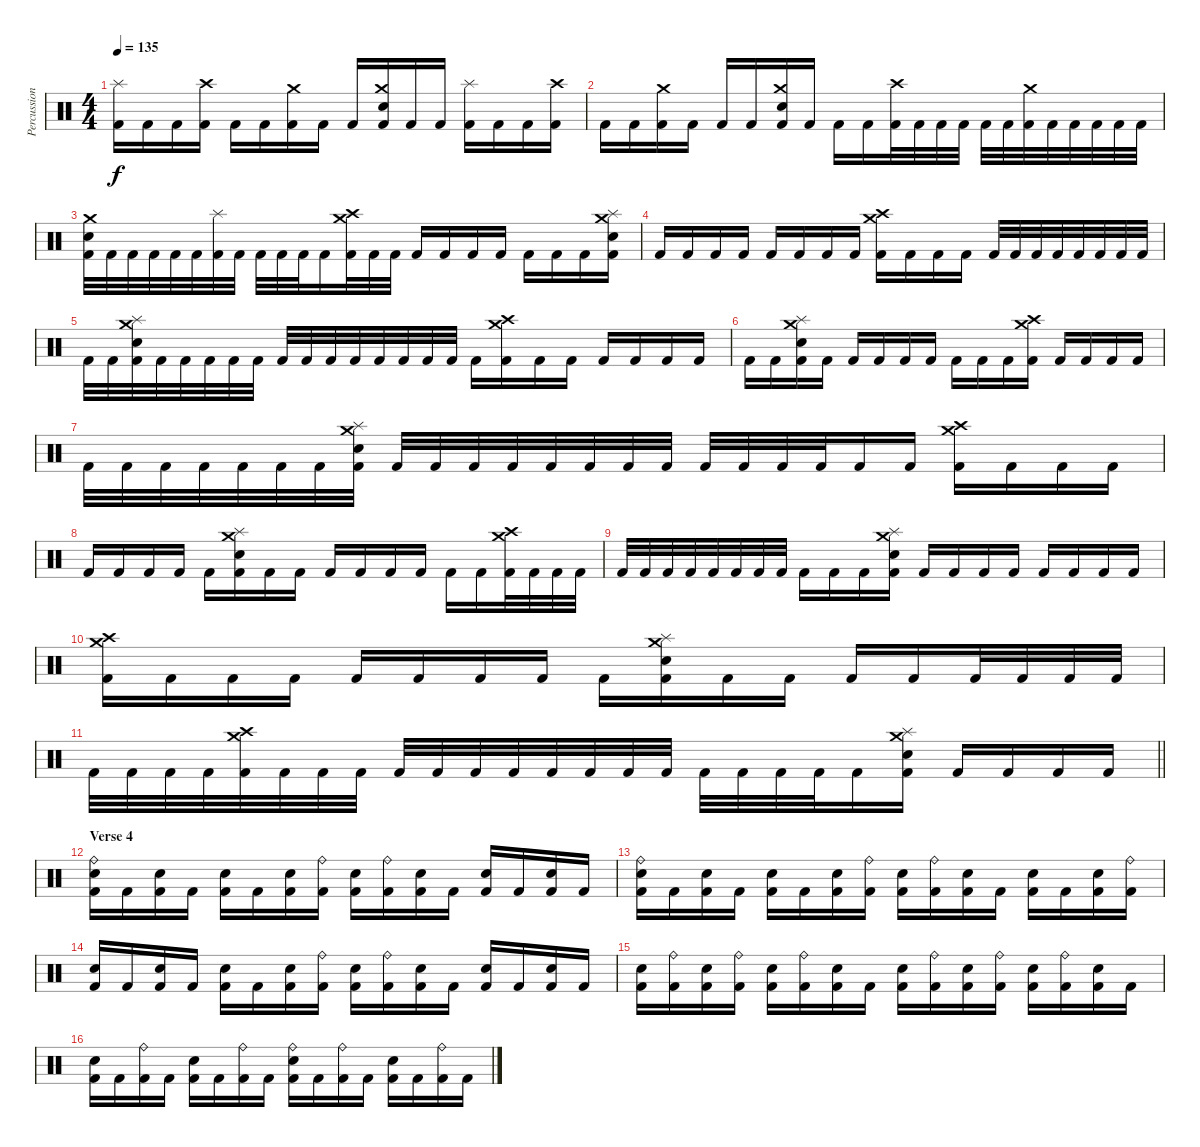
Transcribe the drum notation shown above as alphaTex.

\track ("Percussion" "Percussion") {instrument percussion}
\staff {score}
\articulation defaults
\ts (4 4)
\tempo 135
\clef neutral
\ks c
("Splash (hit)" "Kick (hit) 2").16{dy f} "Kick (hit) 2".16 "Kick (hit) 2".16 ("Crash high (hit)" "Kick (hit) 2").16 "Kick (hit) 2".16 "Kick (hit) 2".16 ("Crash medium (hit)" "Kick (hit) 2").16 "Kick (hit) 2".16 "Kick (hit) 2".16 ("Crash medium (hit)" "Electric Snare (hit)" "Kick (hit) 2").16 "Kick (hit) 2".16 "Kick (hit) 2".16 ("Splash (hit)" "Kick (hit) 2").16 "Kick (hit) 2".16 "Kick (hit) 2".16 ("Crash high (hit)" "Kick (hit) 2").16 |
"Kick (hit) 2".16 "Kick (hit) 2".16 ("Crash medium (hit)" "Kick (hit) 2").16 "Kick (hit) 2".16 "Kick (hit) 2".16 "Kick (hit) 2".16 ("Crash medium (hit)" "Electric Snare (hit)" "Kick (hit) 2").16 "Kick (hit) 2".16 "Kick (hit) 2".16 "Kick (hit) 2".16 ("Crash high (hit)" "Kick (hit) 2").32 "Kick (hit) 2".32 "Kick (hit) 2".32 "Kick (hit) 2".32 "Kick (hit) 2".32 "Kick (hit) 2".32 ("Crash medium (hit)" "Kick (hit) 2").32 "Kick (hit) 2".32 "Kick (hit) 2".32 "Kick (hit) 2".32 "Kick (hit) 2".32 "Kick (hit) 2".32 |
("Crash medium (hit)" "Electric Snare (hit)" "Kick (hit) 2").32 "Kick (hit) 2".32 "Kick (hit) 2".32 "Kick (hit) 2".32 "Kick (hit) 2".32 "Kick (hit) 2".32 ("Splash (hit)" "Kick (hit) 2").32 "Kick (hit) 2".32 "Kick (hit) 2".32 "Kick (hit) 2".32 "Kick (hit) 2".32 "Kick (hit) 2".16 ("Crash high (hit)" "Crash medium (hit)" "Kick (hit) 2").32 "Kick (hit) 2".32 "Kick (hit) 2".32 "Kick (hit) 2".16 "Kick (hit) 2".16 "Kick (hit) 2".16 "Kick (hit) 2".16 "Kick (hit) 2".16 "Kick (hit) 2".16 "Kick (hit) 2".16 ("Crash medium (hit)" "Splash (hit)" "Electric Snare (hit)" "Kick (hit) 2").16 |
"Kick (hit) 2".16 "Kick (hit) 2".16 "Kick (hit) 2".16 "Kick (hit) 2".16 "Kick (hit) 2".16 "Kick (hit) 2".16 "Kick (hit) 2".16 "Kick (hit) 2".16 ("Crash high (hit)" "Crash medium (hit)" "Kick (hit) 2").16 "Kick (hit) 2".16 "Kick (hit) 2".16 "Kick (hit) 2".16 "Kick (hit) 2".32 "Kick (hit) 2".32 "Kick (hit) 2".32 "Kick (hit) 2".32 "Kick (hit) 2".32 "Kick (hit) 2".32 "Kick (hit) 2".32 "Kick (hit) 2".32 |
"Kick (hit) 2".32 "Kick (hit) 2".32 ("Crash medium (hit)" "Splash (hit)" "Electric Snare (hit)" "Kick (hit) 2").32 "Kick (hit) 2".32 "Kick (hit) 2".32 "Kick (hit) 2".32 "Kick (hit) 2".32 "Kick (hit) 2".32 "Kick (hit) 2".32 "Kick (hit) 2".32 "Kick (hit) 2".32 "Kick (hit) 2".32 "Kick (hit) 2".32 "Kick (hit) 2".32 "Kick (hit) 2".32 "Kick (hit) 2".32 "Kick (hit) 2".16 ("Crash high (hit)" "Crash medium (hit)" "Kick (hit) 2").16 "Kick (hit) 2".16 "Kick (hit) 2".16 "Kick (hit) 2".16 "Kick (hit) 2".16 "Kick (hit) 2".16 "Kick (hit) 2".16 |
"Kick (hit) 2".16 "Kick (hit) 2".16 ("Crash medium (hit)" "Splash (hit)" "Electric Snare (hit)" "Kick (hit) 2").16 "Kick (hit) 2".16 "Kick (hit) 2".16 "Kick (hit) 2".16 "Kick (hit) 2".16 "Kick (hit) 2".16 "Kick (hit) 2".16 "Kick (hit) 2".16 "Kick (hit) 2".16 ("Crash high (hit)" "Crash medium (hit)" "Kick (hit) 2").16 "Kick (hit) 2".16 "Kick (hit) 2".16 "Kick (hit) 2".16 "Kick (hit) 2".16 |
"Kick (hit) 2".32 "Kick (hit) 2".32 "Kick (hit) 2".32 "Kick (hit) 2".32 "Kick (hit) 2".32 "Kick (hit) 2".32 "Kick (hit) 2".32 ("Crash medium (hit)" "Splash (hit)" "Electric Snare (hit)" "Kick (hit) 2").32 "Kick (hit) 2".32 "Kick (hit) 2".32 "Kick (hit) 2".32 "Kick (hit) 2".32 "Kick (hit) 2".32 "Kick (hit) 2".32 "Kick (hit) 2".32 "Kick (hit) 2".32 "Kick (hit) 2".32 "Kick (hit) 2".32 "Kick (hit) 2".32 "Kick (hit) 2".32 "Kick (hit) 2".16 "Kick (hit) 2".16 ("Crash high (hit)" "Crash medium (hit)" "Kick (hit) 2").16 "Kick (hit) 2".16 "Kick (hit) 2".16 "Kick (hit) 2".16 |
"Kick (hit) 2".16 "Kick (hit) 2".16 "Kick (hit) 2".16 "Kick (hit) 2".16 "Kick (hit) 2".16 ("Crash medium (hit)" "Splash (hit)" "Electric Snare (hit)" "Kick (hit) 2").16 "Kick (hit) 2".16 "Kick (hit) 2".16 "Kick (hit) 2".16 "Kick (hit) 2".16 "Kick (hit) 2".16 "Kick (hit) 2".16 "Kick (hit) 2".16 "Kick (hit) 2".16 ("Crash high (hit)" "Crash medium (hit)" "Kick (hit) 2").32 "Kick (hit) 2".32 "Kick (hit) 2".32 "Kick (hit) 2".32 |
"Kick (hit) 2".32 "Kick (hit) 2".32 "Kick (hit) 2".32 "Kick (hit) 2".32 "Kick (hit) 2".32 "Kick (hit) 2".32 "Kick (hit) 2".32 "Kick (hit) 2".32 "Kick (hit) 2".16 "Kick (hit) 2".16 "Kick (hit) 2".16 ("Crash medium (hit)" "Splash (hit)" "Electric Snare (hit)" "Kick (hit) 2").16 "Kick (hit) 2".16 "Kick (hit) 2".16 "Kick (hit) 2".16 "Kick (hit) 2".16 "Kick (hit) 2".16 "Kick (hit) 2".16 "Kick (hit) 2".16 "Kick (hit) 2".16 |
("Crash high (hit)" "Crash medium (hit)" "Kick (hit) 2").16 "Kick (hit) 2".16 "Kick (hit) 2".16 "Kick (hit) 2".16 "Kick (hit) 2".16 "Kick (hit) 2".16 "Kick (hit) 2".16 "Kick (hit) 2".16 "Kick (hit) 2".16 ("Crash medium (hit)" "Splash (hit)" "Electric Snare (hit)" "Kick (hit) 2").16 "Kick (hit) 2".16 "Kick (hit) 2".16 "Kick (hit) 2".16 "Kick (hit) 2".16 "Kick (hit) 2".32 "Kick (hit) 2".32 "Kick (hit) 2".32 "Kick (hit) 2".32 |
\barLineRight lightlight "Kick (hit) 2".32 "Kick (hit) 2".32 "Kick (hit) 2".32 "Kick (hit) 2".32
("Crash high (hit)" "Crash medium (hit)" "Kick (hit) 2").32 "Kick (hit) 2".32 "Kick (hit) 2".32 "Kick (hit) 2".32 "Kick (hit) 2".32 "Kick (hit) 2".32 "Kick (hit) 2".32 "Kick (hit) 2".32 "Kick (hit) 2".32 "Kick (hit) 2".32 "Kick (hit) 2".32 "Kick (hit) 2".32 "Kick (hit) 2".32 "Kick (hit) 2".32 "Kick (hit) 2".32 "Kick (hit) 2".32 "Kick (hit) 2".16 ("Crash medium (hit)" "Splash (hit)" "Electric Snare (hit)" "Kick (hit) 2").16 "Kick (hit) 2".16 "Kick (hit) 2".16 "Kick (hit) 2".16 "Kick (hit) 2".16 |
\section ("" "Verse 4")
("Ride (bell)" "Electric Snare (hit)" "Kick (hit) 2").16 "Kick (hit) 2".16 ("Electric Snare (hit)" "Kick (hit) 2").16 "Kick (hit) 2".16 ("Electric Snare (hit)" "Kick (hit) 2").16 "Kick (hit) 2".16 ("Electric Snare (hit)" "Kick (hit) 2").16 ("Ride (bell)" "Kick (hit) 2").16 ("Electric Snare (hit)" "Kick (hit) 2").16 ("Ride (bell)" "Kick (hit) 2").16 ("Electric Snare (hit)" "Kick (hit) 2").16 "Kick (hit) 2".16 ("Electric Snare (hit)" "Kick (hit) 2").16 "Kick (hit) 2".16 ("Electric Snare (hit)" "Kick (hit) 2").16 "Kick (hit) 2".16 |
("Ride (bell)" "Electric Snare (hit)" "Kick (hit) 2").16 "Kick (hit) 2".16 ("Electric Snare (hit)" "Kick (hit) 2").16 "Kick (hit) 2".16 ("Electric Snare (hit)" "Kick (hit) 2").16 "Kick (hit) 2".16 ("Electric Snare (hit)" "Kick (hit) 2").16 ("Ride (bell)" "Kick (hit) 2").16 ("Electric Snare (hit)" "Kick (hit) 2").16 ("Ride (bell)" "Kick (hit) 2").16 ("Electric Snare (hit)" "Kick (hit) 2").16 "Kick (hit) 2".16 ("Electric Snare (hit)" "Kick (hit) 2").16 "Kick (hit) 2".16 ("Electric Snare (hit)" "Kick (hit) 2").16 ("Ride (bell)" "Kick (hit) 2").16 |
("Electric Snare (hit)" "Kick (hit) 2").16 "Kick (hit) 2".16 ("Electric Snare (hit)" "Kick (hit) 2").16 "Kick (hit) 2".16 ("Electric Snare (hit)" "Kick (hit) 2").16 "Kick (hit) 2".16 ("Electric Snare (hit)" "Kick (hit) 2").16 ("Ride (bell)" "Kick (hit) 2").16 ("Electric Snare (hit)" "Kick (hit) 2").16 ("Ride (bell)" "Kick (hit) 2").16 ("Electric Snare (hit)" "Kick (hit) 2").16 "Kick (hit) 2".16 ("Electric Snare (hit)" "Kick (hit) 2").16 "Kick (hit) 2".16 ("Electric Snare (hit)" "Kick (hit) 2").16 "Kick (hit) 2".16 |
("Electric Snare (hit)" "Kick (hit) 2").16 ("Ride (bell)" "Kick (hit) 2").16 ("Electric Snare (hit)" "Kick (hit) 2").16 ("Ride (bell)" "Kick (hit) 2").16 ("Electric Snare (hit)" "Kick (hit) 2").16 ("Ride (bell)" "Kick (hit) 2").16 ("Electric Snare (hit)" "Kick (hit) 2").16 "Kick (hit) 2".16 ("Electric Snare (hit)" "Kick (hit) 2").16 ("Ride (bell)" "Kick (hit) 2").16 ("Electric Snare (hit)" "Kick (hit) 2").16 ("Ride (bell)" "Kick (hit) 2").16 ("Electric Snare (hit)" "Kick (hit) 2").16 ("Ride (bell)" "Kick (hit) 2").16 ("Electric Snare (hit)" "Kick (hit) 2").16 "Kick (hit) 2".16 |
("Electric Snare (hit)" "Kick (hit) 2").16 "Kick (hit) 2".16 ("Ride (bell)" "Kick (hit) 2").16 "Kick (hit) 2".16 ("Electric Snare (hit)" "Kick (hit) 2").16 "Kick (hit) 2".16 ("Ride (bell)" "Kick (hit) 2").16 "Kick (hit) 2".16 ("Ride (bell)" "Electric Snare (hit)" "Kick (hit) 2").16 "Kick (hit) 2".16 ("Ride (bell)" "Kick (hit) 2").16 "Kick (hit) 2".16 ("Electric Snare (hit)" "Kick (hit) 2").16 "Kick (hit) 2".16 ("Ride (bell)" "Kick (hit) 2").16 "Kick (hit) 2".16
